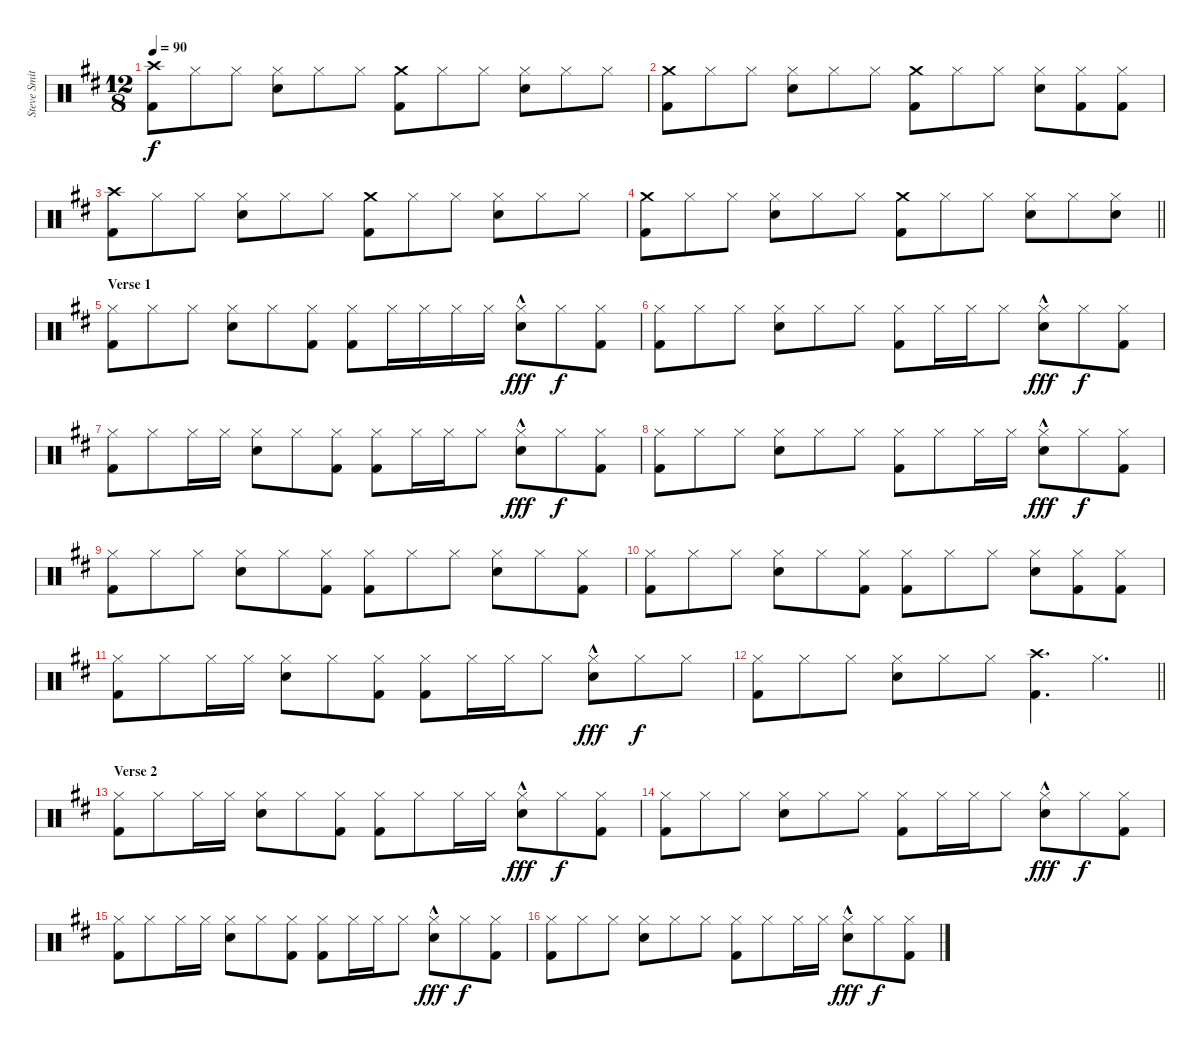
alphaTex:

\track ("Steve Smith" "Steve Smit") {instrument percussion}
\staff {score}
\articulation defaults
\ts (12 8)
\tempo 90
\clef neutral
\ks d
("Crash high (hit)" "Kick (hit) 2").8{dy f} "Hi-Hat (closed)".8 "Hi-Hat (closed)".8 ("Hi-Hat (closed)" "Electric Snare (hit)").8 "Hi-Hat (closed)".8 "Hi-Hat (closed)".8 ("Crash medium (hit)" "Kick (hit) 2").8 "Hi-Hat (closed)".8 "Hi-Hat (closed)".8 ("Hi-Hat (closed)" "Electric Snare (hit)").8 "Hi-Hat (closed)".8 "Hi-Hat (closed)".8 |
("Crash medium (hit)" "Kick (hit) 2").8 "Hi-Hat (closed)".8 "Hi-Hat (closed)".8 ("Hi-Hat (closed)" "Electric Snare (hit)").8 "Hi-Hat (closed)".8 "Hi-Hat (closed)".8 ("Crash medium (hit)" "Kick (hit) 2").8 "Hi-Hat (closed)".8 "Hi-Hat (closed)".8 ("Hi-Hat (closed)" "Electric Snare (hit)").8 ("Hi-Hat (closed)" "Kick (hit) 2").8 ("Hi-Hat (closed)" "Kick (hit) 2").8 |
("Crash high (hit)" "Kick (hit) 2").8 "Hi-Hat (closed)".8 "Hi-Hat (closed)".8 ("Hi-Hat (closed)" "Electric Snare (hit)").8 "Hi-Hat (closed)".8 "Hi-Hat (closed)".8 ("Crash medium (hit)" "Kick (hit) 2").8 "Hi-Hat (closed)".8 "Hi-Hat (closed)".8 ("Hi-Hat (closed)" "Electric Snare (hit)").8 "Hi-Hat (closed)".8 "Hi-Hat (closed)".8 |
\barLineRight lightlight
("Crash medium (hit)" "Kick (hit) 2").8 "Hi-Hat (closed)".8 "Hi-Hat (closed)".8 ("Hi-Hat (closed)" "Electric Snare (hit)").8 "Hi-Hat (closed)".8 "Hi-Hat (closed)".8 ("Crash medium (hit)" "Kick (hit) 2").8 "Hi-Hat (closed)".8 "Hi-Hat (closed)".8 ("Hi-Hat (closed)" "Electric Snare (hit)").8 "Hi-Hat (closed)".8 ("Hi-Hat (closed)" "Electric Snare (hit)").8 |
\section ("" "Verse 1")
("Hi-Hat (closed)" "Kick (hit) 2").8 "Hi-Hat (closed)".8 "Hi-Hat (closed)".8 ("Hi-Hat (closed)" "Electric Snare (hit)").8 "Hi-Hat (closed)".8 ("Hi-Hat (closed)" "Kick (hit) 2").8 ("Hi-Hat (closed)" "Kick (hit) 2").8 "Hi-Hat (closed)".16 "Hi-Hat (closed)".16 "Hi-Hat (closed)".16 "Hi-Hat (closed)".16 ("Hi-Hat (closed)"{hac} "Electric Snare (hit)").8{dy fff} "Hi-Hat (closed)".8{dy f} ("Hi-Hat (closed)" "Kick (hit) 2").8 |
("Hi-Hat (closed)" "Kick (hit) 2").8 "Hi-Hat (closed)".8 "Hi-Hat (closed)".8 ("Hi-Hat (closed)" "Electric Snare (hit)").8 "Hi-Hat (closed)".8 "Hi-Hat (closed)".8 ("Hi-Hat (closed)" "Kick (hit) 2").8 "Hi-Hat (closed)".16 "Hi-Hat (closed)".16 "Hi-Hat (closed)".8 ("Hi-Hat (closed)"{hac} "Electric Snare (hit)").8{dy fff} "Hi-Hat (closed)".8{dy f} ("Hi-Hat (closed)" "Kick (hit) 2").8 |
("Hi-Hat (closed)" "Kick (hit) 2").8 "Hi-Hat (closed)".8 "Hi-Hat (closed)".16 "Hi-Hat (closed)".16 ("Hi-Hat (closed)" "Electric Snare (hit)").8 "Hi-Hat (closed)".8 ("Hi-Hat (closed)" "Kick (hit) 2").8 ("Hi-Hat (closed)" "Kick (hit) 2").8 "Hi-Hat (closed)".16 "Hi-Hat (closed)".16 "Hi-Hat (closed)".8 ("Hi-Hat (closed)"{hac} "Electric Snare (hit)").8{dy fff} "Hi-Hat (closed)".8{dy f} ("Hi-Hat (closed)" "Kick (hit) 2").8 |
("Hi-Hat (closed)" "Kick (hit) 2").8 "Hi-Hat (closed)".8 "Hi-Hat (closed)".8 ("Hi-Hat (closed)" "Electric Snare (hit)").8 "Hi-Hat (closed)".8 "Hi-Hat (closed)".8 ("Hi-Hat (closed)" "Kick (hit) 2").8 "Hi-Hat (closed)".8 "Hi-Hat (closed)".16 "Hi-Hat (closed)".16 ("Hi-Hat (closed)"{hac} "Electric Snare (hit)").8{dy fff} "Hi-Hat (closed)".8{dy f} ("Hi-Hat (closed)" "Kick (hit) 2").8 |
("Hi-Hat (closed)" "Kick (hit) 2").8 "Hi-Hat (closed)".8 "Hi-Hat (closed)".8 ("Hi-Hat (closed)" "Electric Snare (hit)").8 "Hi-Hat (closed)".8 ("Hi-Hat (closed)" "Kick (hit) 2").8 ("Hi-Hat (closed)" "Kick (hit) 2").8 "Hi-Hat (closed)".8 "Hi-Hat (closed)".8 ("Hi-Hat (closed)" "Electric Snare (hit)").8 "Hi-Hat (closed)".8 ("Hi-Hat (closed)" "Kick (hit) 2").8 |
("Hi-Hat (closed)" "Kick (hit) 2").8 "Hi-Hat (closed)".8 "Hi-Hat (closed)".8 ("Hi-Hat (closed)" "Electric Snare (hit)").8 "Hi-Hat (closed)".8 ("Hi-Hat (closed)" "Kick (hit) 2").8 ("Hi-Hat (closed)" "Kick (hit) 2").8 "Hi-Hat (closed)".8 "Hi-Hat (closed)".8 ("Hi-Hat (closed)" "Electric Snare (hit)").8 ("Hi-Hat (closed)" "Kick (hit) 2").8 ("Hi-Hat (closed)" "Kick (hit) 2").8 |
("Hi-Hat (closed)" "Kick (hit) 2").8 "Hi-Hat (closed)".8 "Hi-Hat (closed)".16 "Hi-Hat (closed)".16 ("Hi-Hat (closed)" "Electric Snare (hit)").8 "Hi-Hat (closed)".8 ("Hi-Hat (closed)" "Kick (hit) 2").8 ("Hi-Hat (closed)" "Kick (hit) 2").8 "Hi-Hat (closed)".16 "Hi-Hat (closed)".16 "Hi-Hat (closed)".8 ("Hi-Hat (closed)"{hac} "Electric Snare (hit)").8{dy fff} "Hi-Hat (closed)".8{dy f} "Hi-Hat (closed)".8 |
\barLineRight lightlight
("Hi-Hat (closed)" "Kick (hit) 2").8 "Hi-Hat (closed)".8 "Hi-Hat (closed)".8 ("Hi-Hat (closed)" "Electric Snare (hit)").8 "Hi-Hat (closed)".8 "Hi-Hat (closed)".8 ("Crash high (hit)" "Kick (hit) 2").4{d} "Hi-Hat (closed)".4{d} |
\section ("" "Verse 2")
("Hi-Hat (closed)" "Kick (hit) 2").8 "Hi-Hat (closed)".8 "Hi-Hat (closed)".16 "Hi-Hat (closed)".16 ("Hi-Hat (closed)" "Electric Snare (hit)").8 "Hi-Hat (closed)".8 ("Hi-Hat (closed)" "Kick (hit) 2").8 ("Hi-Hat (closed)" "Kick (hit) 2").8 "Hi-Hat (closed)".8 "Hi-Hat (closed)".16 "Hi-Hat (closed)".16 ("Hi-Hat (closed)"{hac} "Electric Snare (hit)").8{dy fff} "Hi-Hat (closed)".8{dy f} ("Hi-Hat (closed)" "Kick (hit) 2").8 |
("Hi-Hat (closed)" "Kick (hit) 2").8 "Hi-Hat (closed)".8 "Hi-Hat (closed)".8 ("Hi-Hat (closed)" "Electric Snare (hit)").8 "Hi-Hat (closed)".8 "Hi-Hat (closed)".8 ("Hi-Hat (closed)" "Kick (hit) 2").8 "Hi-Hat (closed)".16 "Hi-Hat (closed)".16 "Hi-Hat (closed)".8 ("Hi-Hat (closed)"{hac} "Electric Snare (hit)").8{dy fff} "Hi-Hat (closed)".8{dy f} ("Hi-Hat (closed)" "Kick (hit) 2").8 |
("Hi-Hat (closed)" "Kick (hit) 2").8 "Hi-Hat (closed)".8 "Hi-Hat (closed)".16 "Hi-Hat (closed)".16 ("Hi-Hat (closed)" "Electric Snare (hit)").8 "Hi-Hat (closed)".8 ("Hi-Hat (closed)" "Kick (hit) 2").8 ("Hi-Hat (closed)" "Kick (hit) 2").8 "Hi-Hat (closed)".16 "Hi-Hat (closed)".16 "Hi-Hat (closed)".8 ("Hi-Hat (closed)"{hac} "Electric Snare (hit)").8{dy fff} "Hi-Hat (closed)".8{dy f} ("Hi-Hat (closed)" "Kick (hit) 2").8 |
("Hi-Hat (closed)" "Kick (hit) 2").8 "Hi-Hat (closed)".8 "Hi-Hat (closed)".8 ("Hi-Hat (closed)" "Electric Snare (hit)").8 "Hi-Hat (closed)".8 "Hi-Hat (closed)".8 ("Hi-Hat (closed)" "Kick (hit) 2").8 "Hi-Hat (closed)".8 "Hi-Hat (closed)".16 "Hi-Hat (closed)".16 ("Hi-Hat (closed)"{hac} "Electric Snare (hit)").8{dy fff} "Hi-Hat (closed)".8{dy f} ("Hi-Hat (closed)" "Kick (hit) 2").8
